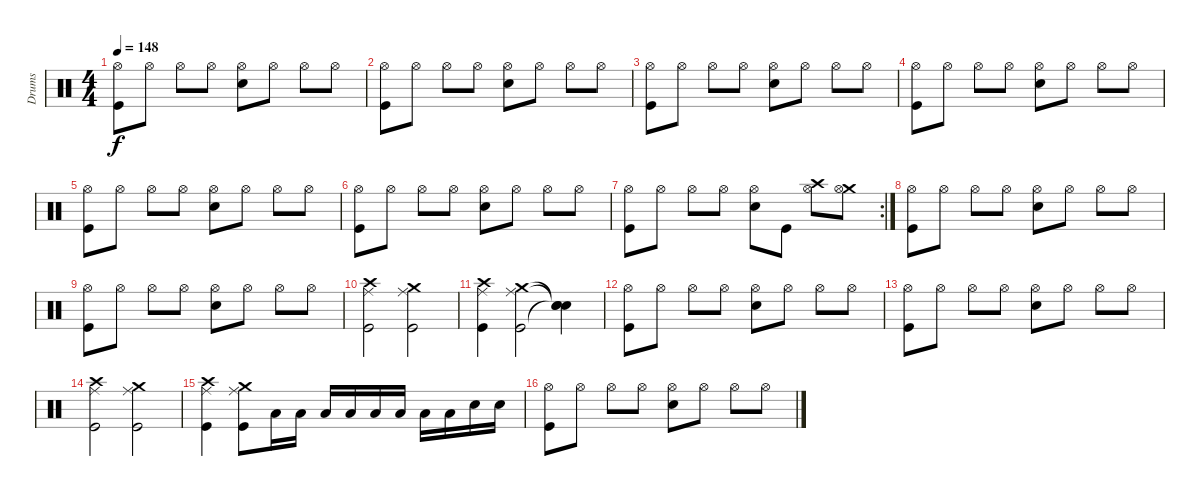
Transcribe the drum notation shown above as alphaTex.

\track ("Drums" "Drums") {instrument percussion}
\staff {score}
\articulation defaults
\ts (4 4)
\tempo 148
\clef neutral
\ks c
("Hi-Hat (open)" "Kick (hit)").8{dy f} "Hi-Hat (open)".8 "Hi-Hat (open)".8 "Hi-Hat (open)".8 ("Snare (hit) 2" "Hi-Hat (open)").8 "Hi-Hat (open)".8 "Hi-Hat (open)".8 "Hi-Hat (open)".8 |
("Hi-Hat (open)" "Kick (hit)").8 "Hi-Hat (open)".8 "Hi-Hat (open)".8 "Hi-Hat (open)".8 ("Snare (hit) 2" "Hi-Hat (open)").8 "Hi-Hat (open)".8 "Hi-Hat (open)".8 "Hi-Hat (open)".8 |
("Hi-Hat (open)" "Kick (hit)").8 "Hi-Hat (open)".8 "Hi-Hat (open)".8 "Hi-Hat (open)".8 ("Snare (hit) 2" "Hi-Hat (open)").8 "Hi-Hat (open)".8 "Hi-Hat (open)".8 "Hi-Hat (open)".8 |
("Hi-Hat (open)" "Kick (hit)").8 "Hi-Hat (open)".8 "Hi-Hat (open)".8 "Hi-Hat (open)".8 ("Snare (hit) 2" "Hi-Hat (open)").8 "Hi-Hat (open)".8 "Hi-Hat (open)".8 "Hi-Hat (open)".8 |
("Hi-Hat (open)" "Kick (hit)").8 "Hi-Hat (open)".8 "Hi-Hat (open)".8 "Hi-Hat (open)".8 ("Snare (hit) 2" "Hi-Hat (open)").8 "Hi-Hat (open)".8 "Hi-Hat (open)".8 "Hi-Hat (open)".8 |
("Hi-Hat (open)" "Kick (hit)").8 "Hi-Hat (open)".8 "Hi-Hat (open)".8 "Hi-Hat (open)".8 ("Snare (hit) 2" "Hi-Hat (open)").8 "Hi-Hat (open)".8 "Hi-Hat (open)".8 "Hi-Hat (open)".8 |
\rc 2
("Hi-Hat (open)" "Kick (hit)").8 "Hi-Hat (open)".8 "Hi-Hat (open)".8 "Hi-Hat (open)".8 ("Snare (hit) 2" "Hi-Hat (open)").8 "Kick (hit)".8 ("Crash high (hit)" "Hi-Hat (open)").8 ("Crash medium (hit)" "Hi-Hat (open)").8 |
("Hi-Hat (open)" "Kick (hit)").8 "Hi-Hat (open)".8 "Hi-Hat (open)".8 "Hi-Hat (open)".8 ("Snare (hit) 2" "Hi-Hat (open)").8 "Hi-Hat (open)".8 "Hi-Hat (open)".8 "Hi-Hat (open)".8 |
("Hi-Hat (open)" "Kick (hit)").8 "Hi-Hat (open)".8 "Hi-Hat (open)".8 "Hi-Hat (open)".8 ("Snare (hit) 2" "Hi-Hat (open)").8 "Hi-Hat (open)".8 "Hi-Hat (open)".8 "Hi-Hat (open)".8 |
("Ride (middle)" "Crash high (hit)" "Kick (hit)").2 ("Ride (middle)" "Crash medium (hit)" "Kick (hit)").2 |
("Ride (middle)" "Crash high (hit)" "Kick (hit)").4 ("Ride (middle)" "Crash medium (hit)" "Kick (hit)").2 ("Snare (hit)"{t} "Snare (hit)"{t} "Snare (hit)"{t}).4 |
("Hi-Hat (open)" "Kick (hit)").8 "Hi-Hat (open)".8 "Hi-Hat (open)".8 "Hi-Hat (open)".8 ("Snare (hit) 2" "Hi-Hat (open)").8 "Hi-Hat (open)".8 "Hi-Hat (open)".8 "Hi-Hat (open)".8 |
("Hi-Hat (open)" "Kick (hit)").8 "Hi-Hat (open)".8 "Hi-Hat (open)".8 "Hi-Hat (open)".8 ("Snare (hit) 2" "Hi-Hat (open)").8 "Hi-Hat (open)".8 "Hi-Hat (open)".8 "Hi-Hat (open)".8 |
("Ride (middle)" "Crash high (hit)" "Kick (hit)").2 ("Ride (middle)" "Crash medium (hit)" "Kick (hit)").2 |
("Ride (middle)" "Crash high (hit)" "Kick (hit)").4 ("Ride (middle)" "Crash medium (hit)" "Kick (hit)").8 "Low Tom (hit)".16 "Low Tom (hit)".16 "Low Tom (hit)".16 "Low Tom (hit)".16 "Low Tom (hit)".16 "Low Tom (hit)".16 "Low Tom (hit)".16 "Low Tom (hit)".16 "Snare (hit) 2".16 "Snare (hit) 2".16 |
("Hi-Hat (open)" "Kick (hit)").8 "Hi-Hat (open)".8 "Hi-Hat (open)".8 "Hi-Hat (open)".8 ("Snare (hit) 2" "Hi-Hat (open)").8 "Hi-Hat (open)".8 "Hi-Hat (open)".8 "Hi-Hat (open)".8
